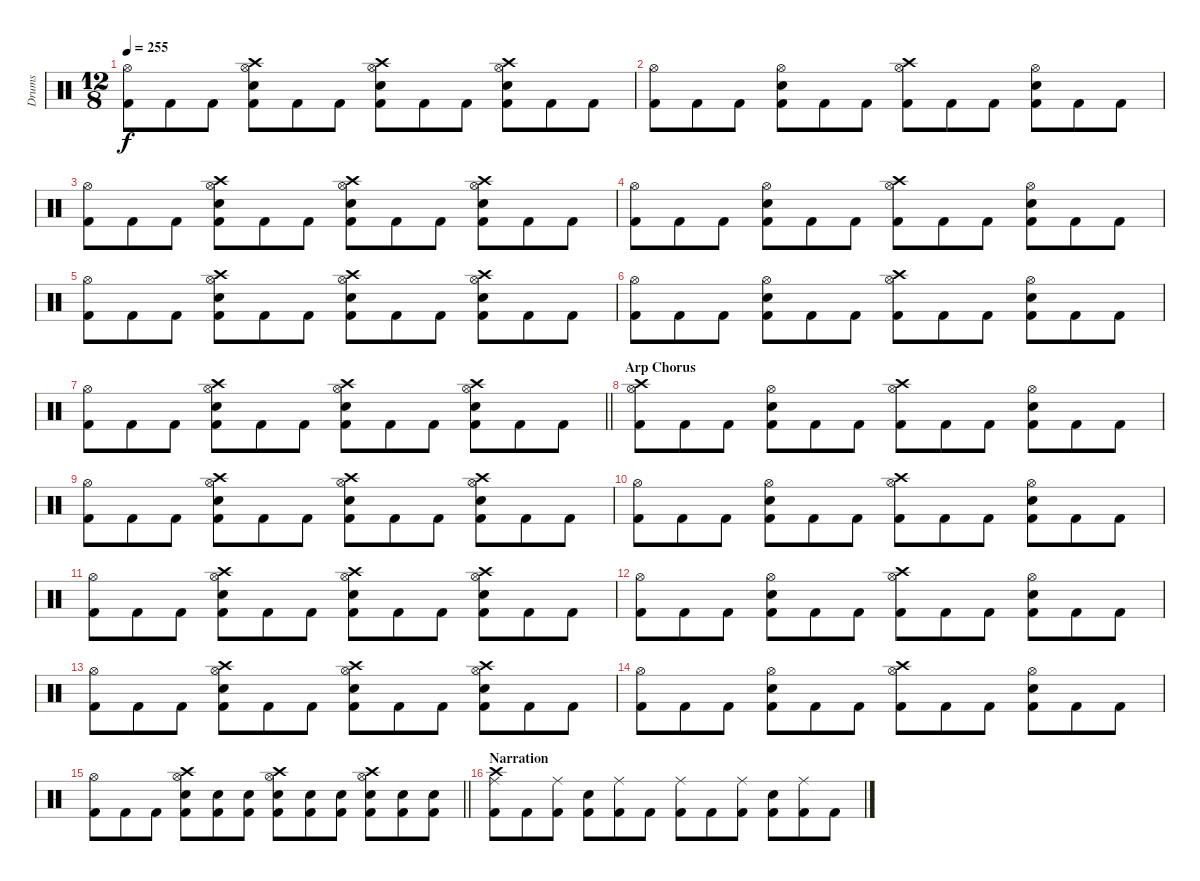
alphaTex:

\track ("Drums" "Drums") {instrument percussion}
\staff {score}
\articulation defaults
\ts (12 8)
\tempo 255
\clef neutral
\ks c
("Hi-Hat (open)" "Kick (hit) 2").8{dy f} "Kick (hit) 2".8 "Kick (hit) 2".8 ("Crash high (hit)" "Hi-Hat (open)" "Snare (hit) 2" "Kick (hit) 2").8 "Kick (hit) 2".8 "Kick (hit) 2".8 ("Crash high (hit)" "Hi-Hat (open)" "Snare (hit) 2" "Kick (hit) 2").8 "Kick (hit) 2".8 "Kick (hit) 2".8 ("Crash high (hit)" "Hi-Hat (open)" "Snare (hit) 2" "Kick (hit) 2").8 "Kick (hit) 2".8 "Kick (hit) 2".8 |
("Hi-Hat (open)" "Kick (hit) 2").8 "Kick (hit) 2".8 "Kick (hit) 2".8 ("Hi-Hat (open)" "Snare (hit) 2" "Kick (hit) 2").8 "Kick (hit) 2".8 "Kick (hit) 2".8 ("Crash high (hit)" "Hi-Hat (open)" "Kick (hit) 2").8 "Kick (hit) 2".8 "Kick (hit) 2".8 ("Hi-Hat (open)" "Snare (hit) 2" "Kick (hit) 2").8 "Kick (hit) 2".8 "Kick (hit) 2".8 |
("Hi-Hat (open)" "Kick (hit) 2").8 "Kick (hit) 2".8 "Kick (hit) 2".8 ("Crash high (hit)" "Hi-Hat (open)" "Snare (hit) 2" "Kick (hit) 2").8 "Kick (hit) 2".8 "Kick (hit) 2".8 ("Crash high (hit)" "Hi-Hat (open)" "Snare (hit) 2" "Kick (hit) 2").8 "Kick (hit) 2".8 "Kick (hit) 2".8 ("Crash high (hit)" "Hi-Hat (open)" "Snare (hit) 2" "Kick (hit) 2").8 "Kick (hit) 2".8 "Kick (hit) 2".8 |
("Hi-Hat (open)" "Kick (hit) 2").8 "Kick (hit) 2".8 "Kick (hit) 2".8 ("Hi-Hat (open)" "Snare (hit) 2" "Kick (hit) 2").8 "Kick (hit) 2".8 "Kick (hit) 2".8 ("Crash high (hit)" "Hi-Hat (open)" "Kick (hit) 2").8 "Kick (hit) 2".8 "Kick (hit) 2".8 ("Hi-Hat (open)" "Snare (hit) 2" "Kick (hit) 2").8 "Kick (hit) 2".8 "Kick (hit) 2".8 |
("Hi-Hat (open)" "Kick (hit) 2").8 "Kick (hit) 2".8 "Kick (hit) 2".8 ("Crash high (hit)" "Hi-Hat (open)" "Snare (hit) 2" "Kick (hit) 2").8 "Kick (hit) 2".8 "Kick (hit) 2".8 ("Crash high (hit)" "Hi-Hat (open)" "Snare (hit) 2" "Kick (hit) 2").8 "Kick (hit) 2".8 "Kick (hit) 2".8 ("Crash high (hit)" "Hi-Hat (open)" "Snare (hit) 2" "Kick (hit) 2").8 "Kick (hit) 2".8 "Kick (hit) 2".8 |
("Hi-Hat (open)" "Kick (hit) 2").8 "Kick (hit) 2".8 "Kick (hit) 2".8 ("Hi-Hat (open)" "Snare (hit) 2" "Kick (hit) 2").8 "Kick (hit) 2".8 "Kick (hit) 2".8 ("Crash high (hit)" "Hi-Hat (open)" "Kick (hit) 2").8 "Kick (hit) 2".8 "Kick (hit) 2".8 ("Hi-Hat (open)" "Snare (hit) 2" "Kick (hit) 2").8 "Kick (hit) 2".8 "Kick (hit) 2".8 |
\barLineRight lightlight
("Hi-Hat (open)" "Kick (hit) 2").8 "Kick (hit) 2".8 "Kick (hit) 2".8 ("Crash high (hit)" "Hi-Hat (open)" "Snare (hit) 2" "Kick (hit) 2").8 "Kick (hit) 2".8 "Kick (hit) 2".8 ("Crash high (hit)" "Hi-Hat (open)" "Snare (hit) 2" "Kick (hit) 2").8 "Kick (hit) 2".8 "Kick (hit) 2".8 ("Crash high (hit)" "Hi-Hat (open)" "Snare (hit) 2" "Kick (hit) 2").8 "Kick (hit) 2".8 "Kick (hit) 2".8 |
\section ("" "Arp Chorus")
("Crash high (hit)" "Hi-Hat (open)" "Kick (hit) 2").8 "Kick (hit) 2".8 "Kick (hit) 2".8 ("Hi-Hat (open)" "Snare (hit) 2" "Kick (hit) 2").8 "Kick (hit) 2".8 "Kick (hit) 2".8 ("Crash high (hit)" "Hi-Hat (open)" "Kick (hit) 2").8 "Kick (hit) 2".8 "Kick (hit) 2".8 ("Hi-Hat (open)" "Snare (hit) 2" "Kick (hit) 2").8 "Kick (hit) 2".8 "Kick (hit) 2".8 |
("Hi-Hat (open)" "Kick (hit) 2").8 "Kick (hit) 2".8 "Kick (hit) 2".8 ("Crash high (hit)" "Hi-Hat (open)" "Snare (hit) 2" "Kick (hit) 2").8 "Kick (hit) 2".8 "Kick (hit) 2".8 ("Crash high (hit)" "Hi-Hat (open)" "Snare (hit) 2" "Kick (hit) 2").8 "Kick (hit) 2".8 "Kick (hit) 2".8 ("Crash high (hit)" "Hi-Hat (open)" "Snare (hit) 2" "Kick (hit) 2").8 "Kick (hit) 2".8 "Kick (hit) 2".8 |
("Hi-Hat (open)" "Kick (hit) 2").8 "Kick (hit) 2".8 "Kick (hit) 2".8 ("Hi-Hat (open)" "Snare (hit) 2" "Kick (hit) 2").8 "Kick (hit) 2".8 "Kick (hit) 2".8 ("Crash high (hit)" "Hi-Hat (open)" "Kick (hit) 2").8 "Kick (hit) 2".8 "Kick (hit) 2".8 ("Hi-Hat (open)" "Snare (hit) 2" "Kick (hit) 2").8 "Kick (hit) 2".8 "Kick (hit) 2".8 |
("Hi-Hat (open)" "Kick (hit) 2").8 "Kick (hit) 2".8 "Kick (hit) 2".8 ("Crash high (hit)" "Hi-Hat (open)" "Snare (hit) 2" "Kick (hit) 2").8 "Kick (hit) 2".8 "Kick (hit) 2".8 ("Crash high (hit)" "Hi-Hat (open)" "Snare (hit) 2" "Kick (hit) 2").8 "Kick (hit) 2".8 "Kick (hit) 2".8 ("Crash high (hit)" "Hi-Hat (open)" "Snare (hit) 2" "Kick (hit) 2").8 "Kick (hit) 2".8 "Kick (hit) 2".8 |
("Hi-Hat (open)" "Kick (hit) 2").8 "Kick (hit) 2".8 "Kick (hit) 2".8 ("Hi-Hat (open)" "Snare (hit) 2" "Kick (hit) 2").8 "Kick (hit) 2".8 "Kick (hit) 2".8 ("Crash high (hit)" "Hi-Hat (open)" "Kick (hit) 2").8 "Kick (hit) 2".8 "Kick (hit) 2".8 ("Hi-Hat (open)" "Snare (hit) 2" "Kick (hit) 2").8 "Kick (hit) 2".8 "Kick (hit) 2".8 |
("Hi-Hat (open)" "Kick (hit) 2").8 "Kick (hit) 2".8 "Kick (hit) 2".8 ("Crash high (hit)" "Hi-Hat (open)" "Snare (hit) 2" "Kick (hit) 2").8 "Kick (hit) 2".8 "Kick (hit) 2".8 ("Crash high (hit)" "Hi-Hat (open)" "Snare (hit) 2" "Kick (hit) 2").8 "Kick (hit) 2".8 "Kick (hit) 2".8 ("Crash high (hit)" "Hi-Hat (open)" "Snare (hit) 2" "Kick (hit) 2").8 "Kick (hit) 2".8 "Kick (hit) 2".8 |
("Hi-Hat (open)" "Kick (hit) 2").8 "Kick (hit) 2".8 "Kick (hit) 2".8 ("Hi-Hat (open)" "Snare (hit) 2" "Kick (hit) 2").8 "Kick (hit) 2".8 "Kick (hit) 2".8 ("Crash high (hit)" "Hi-Hat (open)" "Kick (hit) 2").8 "Kick (hit) 2".8 "Kick (hit) 2".8 ("Hi-Hat (open)" "Snare (hit) 2" "Kick (hit) 2").8 "Kick (hit) 2".8 "Kick (hit) 2".8 |
\barLineRight lightlight
("Hi-Hat (open)" "Kick (hit) 2").8 "Kick (hit) 2".8 "Kick (hit) 2".8 ("Crash high (hit)" "Hi-Hat (open)" "Snare (hit) 2" "Kick (hit) 2").8 ("Snare (hit) 2" "Kick (hit) 2").8 ("Snare (hit) 2" "Kick (hit) 2").8 ("Crash high (hit)" "Hi-Hat (open)" "Snare (hit) 2" "Kick (hit) 2").8 ("Snare (hit) 2" "Kick (hit) 2").8 ("Snare (hit) 2" "Kick (hit) 2").8 ("Crash high (hit)" "Hi-Hat (open)" "Snare (hit) 2" "Kick (hit) 2").8 ("Snare (hit) 2" "Kick (hit) 2").8 ("Snare (hit) 2" "Kick (hit) 2").8 |
\section ("" "Narration")
("Crash high (hit)" "Ride (middle)" "Kick (hit) 2").8 "Kick (hit) 2".8 ("Ride (middle)" "Kick (hit) 2").8 ("Snare (hit) 2" "Kick (hit) 2").8 ("Ride (middle)" "Kick (hit) 2").8 "Kick (hit) 2".8 ("Ride (middle)" "Kick (hit) 2").8 "Kick (hit) 2".8 ("Ride (middle)" "Kick (hit) 2").8 ("Snare (hit) 2" "Kick (hit) 2").8 ("Ride (middle)" "Kick (hit) 2").8 "Kick (hit) 2".8
